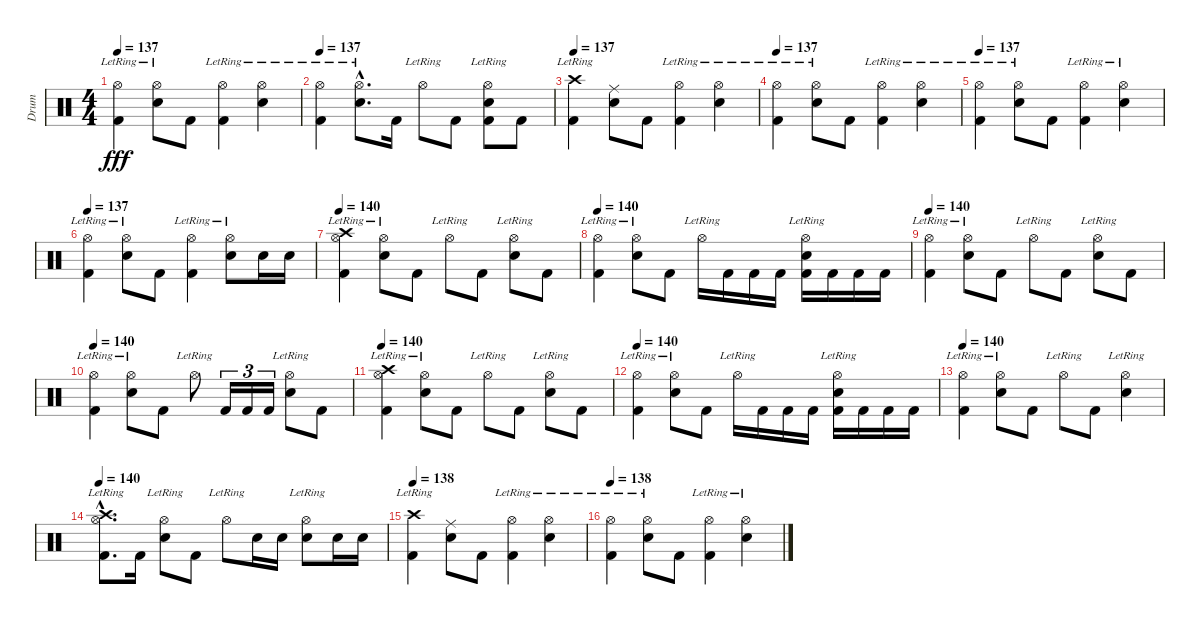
\track ("Drum" "Drum") {instrument percussion}
\staff {score}
\articulation defaults
\ts (4 4)
\tempo 137
\clef neutral
\ks c
("Hi-Hat (open)"{lr} "Kick (hit) 2").4{dy fff} ("Hi-Hat (open)"{lr} "Electric Snare (hit)").8 "Kick (hit) 2".8 ("Hi-Hat (open)"{lr} "Kick (hit) 2").4 ("Hi-Hat (open)"{lr} "Electric Snare (hit)").4 |
\tempo 137
("Hi-Hat (open)"{lr} "Kick (hit) 2").4 ("Hi-Hat (open)"{hac lr} "Electric Snare (hit)"{hac}).8{d} "Kick (hit) 2".16 "Hi-Hat (open)"{lr}.8 "Kick (hit) 2".8 ("Hi-Hat (open)"{lr} "Electric Snare (hit)" "Kick (hit) 2").8 "Kick (hit) 2".8 |
\tempo 137
("Crash high (hit)"{lr} "Kick (hit) 2").4 ("Ride (middle)" "Electric Snare (hit)").8 "Kick (hit) 2".8 ("Hi-Hat (open)"{lr} "Kick (hit) 2").4 ("Hi-Hat (open)"{lr} "Electric Snare (hit)").4 |
\tempo 137
("Hi-Hat (open)"{lr} "Kick (hit) 2").4 ("Hi-Hat (open)"{lr} "Electric Snare (hit)").8 "Kick (hit) 2".8 ("Hi-Hat (open)"{lr} "Kick (hit) 2").4 ("Hi-Hat (open)"{lr} "Electric Snare (hit)").4 |
\tempo 137
("Hi-Hat (open)"{lr} "Kick (hit) 2").4 ("Hi-Hat (open)"{lr} "Electric Snare (hit)").8 "Kick (hit) 2".8 ("Hi-Hat (open)"{lr} "Kick (hit) 2").4 ("Hi-Hat (open)"{lr} "Electric Snare (hit)").4 |
\tempo 137
("Hi-Hat (open)"{lr} "Kick (hit) 2").4 ("Hi-Hat (open)"{lr} "Electric Snare (hit)").8 "Kick (hit) 2".8 ("Hi-Hat (open)"{lr} "Kick (hit) 2").4 ("Hi-Hat (open)"{lr} "Electric Snare (hit)").8 "Electric Snare (hit)".16 "Electric Snare (hit)".16 |
\tempo 140
("Crash high (hit)"{lr} "Hi-Hat (open)"{lr} "Kick (hit) 2").4 ("Hi-Hat (open)"{lr} "Electric Snare (hit)").8 "Kick (hit) 2".8 "Hi-Hat (open)"{lr}.8 "Kick (hit) 2".8 ("Hi-Hat (open)"{lr} "Electric Snare (hit)").8 "Kick (hit) 2".8 |
\tempo 140
("Hi-Hat (open)"{lr} "Kick (hit) 2").4 ("Hi-Hat (open)"{lr} "Electric Snare (hit)").8 "Kick (hit) 2".8 "Hi-Hat (open)"{lr}.16 "Kick (hit) 2".16 "Kick (hit) 2".16 "Kick (hit) 2".16 ("Hi-Hat (open)"{lr} "Electric Snare (hit)" "Kick (hit) 2").16 "Kick (hit) 2".16 "Kick (hit) 2".16 "Kick (hit) 2".16 |
\tempo 140
("Hi-Hat (open)"{lr} "Kick (hit) 2").4 ("Hi-Hat (open)"{lr} "Electric Snare (hit)").8 "Kick (hit) 2".8 "Hi-Hat (open)"{lr}.8 "Kick (hit) 2".8 ("Hi-Hat (open)"{lr} "Electric Snare (hit)").8 "Kick (hit) 2".8 |
\tempo 140
("Hi-Hat (open)"{lr} "Kick (hit) 2").4 ("Hi-Hat (open)"{lr} "Electric Snare (hit)").8 "Kick (hit) 2".8 "Hi-Hat (open)"{lr}.8 "Kick (hit) 2".16{tu (3 2)} "Kick (hit) 2".16{tu (3 2)} "Kick (hit) 2".16{tu (3 2)} ("Hi-Hat (open)"{lr} "Electric Snare (hit)").8 "Kick (hit) 2".8 |
\tempo 140
("Crash high (hit)"{lr} "Hi-Hat (open)"{lr} "Kick (hit) 2").4 ("Hi-Hat (open)"{lr} "Electric Snare (hit)").8 "Kick (hit) 2".8 "Hi-Hat (open)"{lr}.8 "Kick (hit) 2".8 ("Hi-Hat (open)"{lr} "Electric Snare (hit)").8 "Kick (hit) 2".8 |
\tempo 140
("Hi-Hat (open)"{lr} "Kick (hit) 2").4 ("Hi-Hat (open)"{lr} "Electric Snare (hit)").8 "Kick (hit) 2".8 "Hi-Hat (open)"{lr}.16 "Kick (hit) 2".16 "Kick (hit) 2".16 "Kick (hit) 2".16 ("Hi-Hat (open)"{lr} "Electric Snare (hit)" "Kick (hit) 2").16 "Kick (hit) 2".16 "Kick (hit) 2".16 "Kick (hit) 2".16 |
\tempo 140
("Hi-Hat (open)"{lr} "Kick (hit) 2").4 ("Hi-Hat (open)"{lr} "Electric Snare (hit)").8 "Kick (hit) 2".8 "Hi-Hat (open)"{lr}.8 "Kick (hit) 2".8 ("Hi-Hat (open)"{lr} "Electric Snare (hit)").4 |
\tempo 140
("Crash high (hit)"{hac lr} "Hi-Hat (open)"{hac lr} "Kick (hit) 2"{hac}).8{d} "Kick (hit) 2".16 ("Hi-Hat (open)"{lr} "Electric Snare (hit)").8 "Kick (hit) 2".8 "Hi-Hat (open)"{lr}.8 "Electric Snare (hit)".16 "Electric Snare (hit)".16 ("Hi-Hat (open)"{lr} "Electric Snare (hit)").8 "Electric Snare (hit)".16 "Electric Snare (hit)".16 |
\tempo 138
("Crash high (hit)"{lr} "Kick (hit) 2").4 ("Ride (middle)" "Electric Snare (hit)").8 "Kick (hit) 2".8 ("Hi-Hat (open)"{lr} "Kick (hit) 2").4 ("Hi-Hat (open)"{lr} "Electric Snare (hit)").4 |
\tempo 138
("Hi-Hat (open)"{lr} "Kick (hit) 2").4 ("Hi-Hat (open)"{lr} "Electric Snare (hit)").8 "Kick (hit) 2".8 ("Hi-Hat (open)"{lr} "Kick (hit) 2").4 ("Hi-Hat (open)"{lr} "Electric Snare (hit)").4
